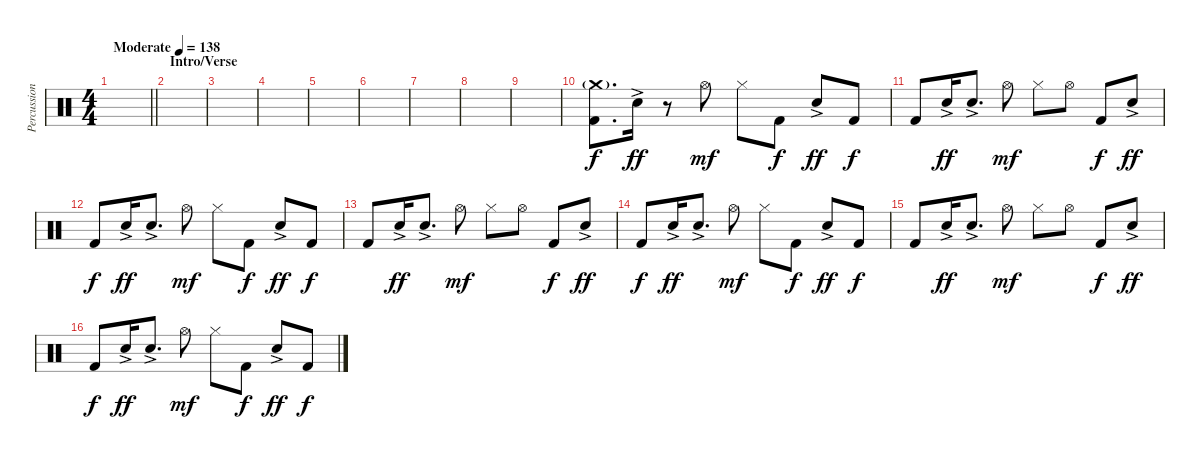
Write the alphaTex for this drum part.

\track ("Percussion" "Percussion") {instrument percussion}
\staff {score}
\articulation defaults
\ts (4 4)
\tempo (138 "Moderate")
\clef neutral
\barLineRight lightlight
\ks c
|
\section ("" "Intro/Verse")
|
|
|
|
|
|
|
|
("Crash medium (hit)"{g} "Kick (hit) 2").8{d} "Electric Snare (hit)"{ac}.16{dy ff} r.8 "Hi-Hat (open)".8{dy mf} "Hi-Hat (closed)".8 "Kick (hit) 2".8{dy f} "Electric Snare (hit)"{ac}.8{dy ff} "Kick (hit) 2".8{dy f} |
"Kick (hit) 2".8 "Electric Snare (hit)"{ac}.16{dy ff} "Electric Snare (hit)"{ac}.8{d} "Hi-Hat (open)".8{dy mf} "Hi-Hat (closed)".8 "Hi-Hat (open)".8 "Kick (hit) 2".8{dy f} "Electric Snare (hit)"{ac}.8{dy ff} |
"Kick (hit) 2".8{dy f} "Electric Snare (hit)"{ac}.16{dy ff} "Electric Snare (hit)"{ac}.8{d} "Hi-Hat (open)".8{dy mf} "Hi-Hat (closed)".8 "Kick (hit) 2".8{dy f} "Electric Snare (hit)"{ac}.8{dy ff} "Kick (hit) 2".8{dy f} |
"Kick (hit) 2".8 "Electric Snare (hit)"{ac}.16{dy ff} "Electric Snare (hit)"{ac}.8{d} "Hi-Hat (open)".8{dy mf} "Hi-Hat (closed)".8 "Hi-Hat (open)".8 "Kick (hit) 2".8{dy f} "Electric Snare (hit)"{ac}.8{dy ff} |
"Kick (hit) 2".8{dy f} "Electric Snare (hit)"{ac}.16{dy ff} "Electric Snare (hit)"{ac}.8{d} "Hi-Hat (open)".8{dy mf} "Hi-Hat (closed)".8 "Kick (hit) 2".8{dy f} "Electric Snare (hit)"{ac}.8{dy ff} "Kick (hit) 2".8{dy f} |
"Kick (hit) 2".8 "Electric Snare (hit)"{ac}.16{dy ff} "Electric Snare (hit)"{ac}.8{d} "Hi-Hat (open)".8{dy mf} "Hi-Hat (closed)".8 "Hi-Hat (open)".8 "Kick (hit) 2".8{dy f} "Electric Snare (hit)"{ac}.8{dy ff} |
"Kick (hit) 2".8{dy f} "Electric Snare (hit)"{ac}.16{dy ff} "Electric Snare (hit)"{ac}.8{d} "Hi-Hat (open)".8{dy mf} "Hi-Hat (closed)".8 "Kick (hit) 2".8{dy f} "Electric Snare (hit)"{ac}.8{dy ff} "Kick (hit) 2".8{dy f}
